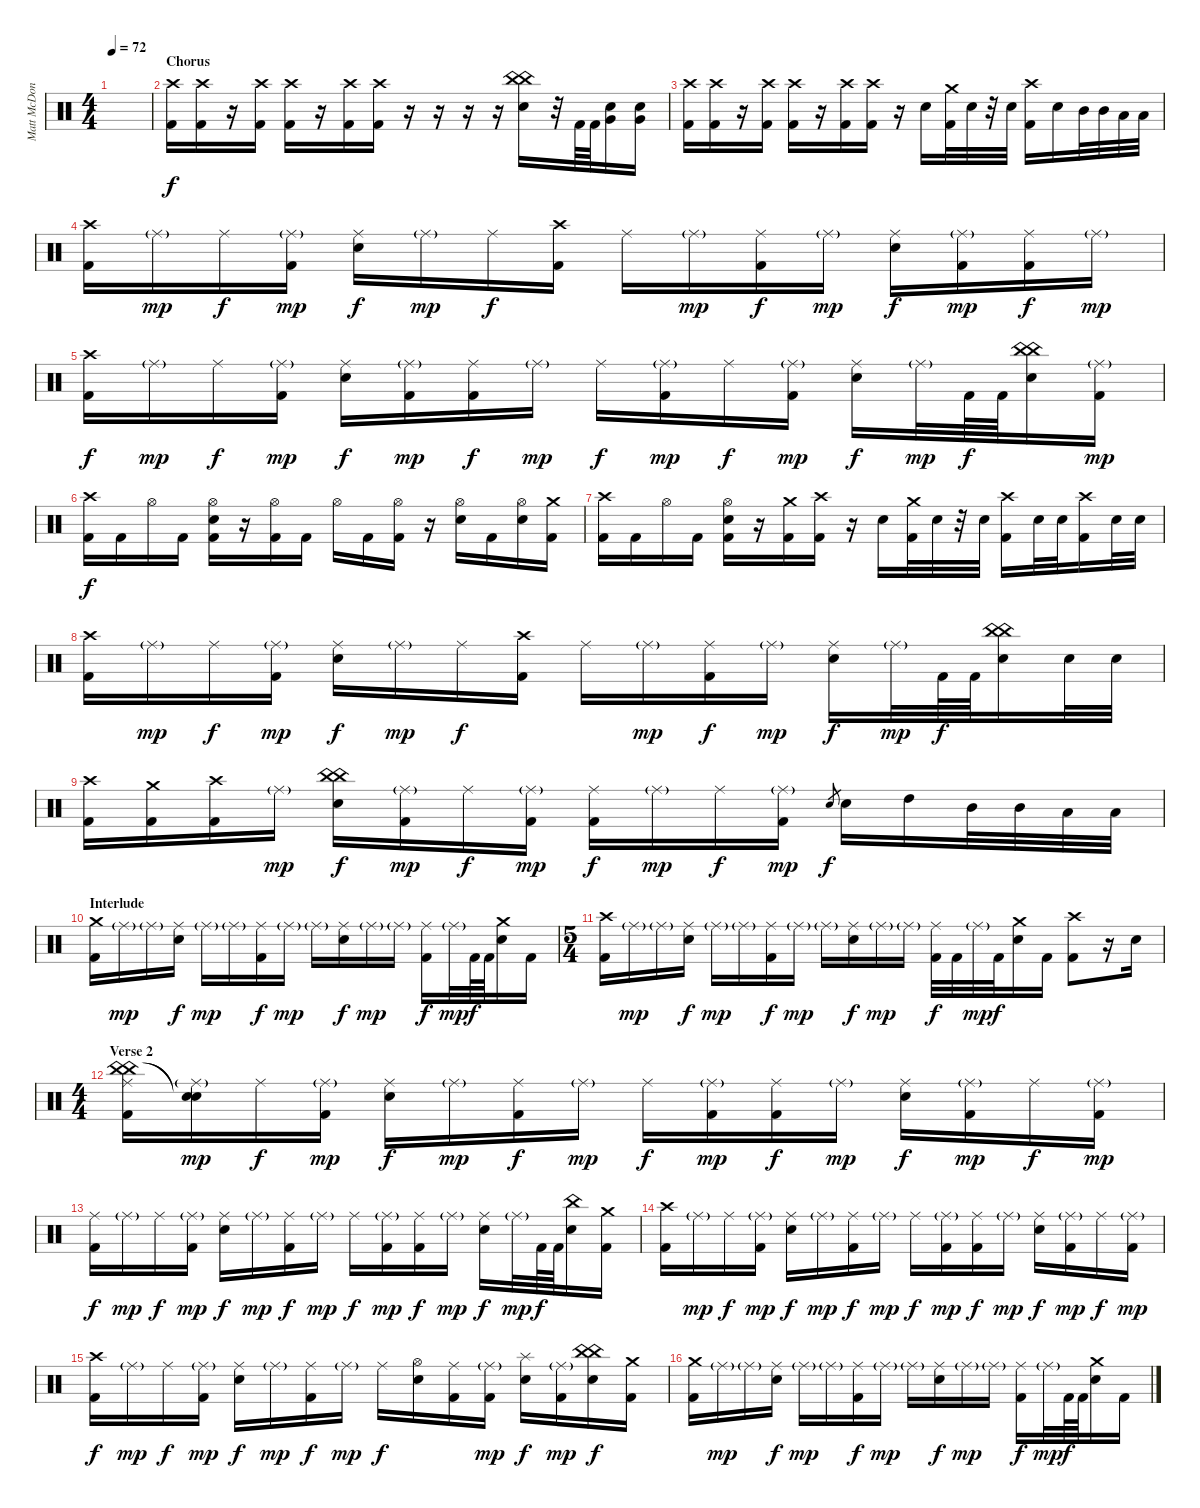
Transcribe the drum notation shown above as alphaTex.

\track ("Matt McDonough \"Spüg\" (Drums)" "Matt McDon") {instrument percussion}
\staff {score}
\articulation defaults
\ts (4 4)
\tempo 72
\clef neutral
\ks c
|
\section ("" "Chorus")
("Crash high (hit)" "Kick (hit) 2").16 ("Crash high (hit)" "Kick (hit) 2").16 r.16 ("Crash high (hit)" "Kick (hit) 2").16 ("Crash high (hit)" "Kick (hit) 2").16 r.16 ("Crash high (hit)" "Kick (hit) 2").16 ("Crash high (hit)" "Kick (hit) 2").16 r.16 r.16 r.16 r.16 ("China (hit)" "China (hit)" "Electric Snare (hit)").16 r.32 "Kick (hit) 2".64 "Kick (hit) 2".64 ("Electric Snare (hit)" "Very Low Tom (hit)").16 ("Electric Snare (hit)" "Very Low Tom (hit)").16 |
("Crash high (hit)" "Kick (hit) 2").16 ("Crash high (hit)" "Kick (hit) 2").16 r.16 ("Crash high (hit)" "Kick (hit) 2").16 ("Crash high (hit)" "Kick (hit) 2").16 r.16 ("Crash high (hit)" "Kick (hit) 2").16 ("Crash high (hit)" "Kick (hit) 2").16 r.16 "Electric Snare (hit)".16 ("Crash medium (hit)" "Kick (hit) 2").32 "Electric Snare (hit)".32 r.32 "Electric Snare (hit)".32 ("Crash high (hit)" "Kick (hit) 2").16 "Electric Snare (hit)".16 "Mid Tom (hit)".32 "Mid Tom (hit)".32 "Low Tom (hit)".32 "Low Tom (hit)".32 |
("Crash high (hit)" "Kick (hit) 2").16 "Ride (middle)"{g}.16{dy mp} "Ride (middle)".16{dy f} ("Ride (middle)"{g} "Kick (hit) 2").16{dy mp} ("Ride (middle)" "Electric Snare (hit)").16{dy f} "Ride (middle)"{g}.16{dy mp} "Ride (middle)".16{dy f} ("Crash high (hit)" "Kick (hit) 2").16 "Ride (middle)".16 "Ride (middle)"{g}.16{dy mp} ("Ride (middle)" "Kick (hit) 2").16{dy f} "Ride (middle)"{g}.16{dy mp} ("Ride (middle)" "Electric Snare (hit)").16{dy f} ("Ride (middle)"{g} "Kick (hit) 2").16{dy mp} ("Ride (middle)" "Kick (hit) 2").16{dy f} "Ride (middle)"{g}.16{dy mp} |
("Crash high (hit)" "Kick (hit) 2").16{dy f} "Ride (middle)"{g}.16{dy mp} "Ride (middle)".16{dy f} ("Ride (middle)"{g} "Kick (hit) 2").16{dy mp} ("Ride (middle)" "Electric Snare (hit)").16{dy f} ("Ride (middle)"{g} "Kick (hit) 2").16{dy mp} ("Ride (middle)" "Kick (hit) 2").16{dy f} "Ride (middle)"{g}.16{dy mp} "Ride (middle)".16{dy f} ("Ride (middle)"{g} "Kick (hit) 2").16{dy mp} "Ride (middle)".16{dy f} ("Ride (middle)"{g} "Kick (hit) 2").16{dy mp} ("Ride (middle)" "Electric Snare (hit)").16{dy f} "Ride (middle)"{g}.32{dy mp} "Kick (hit) 2".64{dy f} "Kick (hit) 2".64 ("China (hit)" "China (hit)" "Electric Snare (hit)").16 ("Ride (middle)"{g} "Kick (hit) 2").16{dy mp} |
("Crash high (hit)" "Kick (hit) 2").16{dy f} "Kick (hit) 2".16 "Hi-Hat (open)".16 "Kick (hit) 2".16 ("Hi-Hat (open)" "Electric Snare (hit)" "Kick (hit) 2").16 r.16 ("Hi-Hat (open)" "Kick (hit) 2").16 "Kick (hit) 2".16 "Hi-Hat (open)".16 "Kick (hit) 2".16 ("Hi-Hat (open)" "Kick (hit) 2").16 r.16 ("Hi-Hat (open)" "Electric Snare (hit)").16 "Kick (hit) 2".16 ("Hi-Hat (open)" "Electric Snare (hit)").16 ("Crash medium (hit)" "Kick (hit) 2").16 |
("Crash high (hit)" "Kick (hit) 2").16 "Kick (hit) 2".16 "Hi-Hat (open)".16 "Kick (hit) 2".16 ("Hi-Hat (open)" "Electric Snare (hit)" "Kick (hit) 2").16 r.16 ("Crash medium (hit)" "Kick (hit) 2").16 ("Crash high (hit)" "Kick (hit) 2").16 r.16 "Electric Snare (hit)".16 ("Crash medium (hit)" "Kick (hit) 2").32 "Electric Snare (hit)".32 r.32 "Electric Snare (hit)".32 ("Crash high (hit)" "Kick (hit) 2").16 "Electric Snare (hit)".32 "Electric Snare (hit)".32 ("Crash high (hit)" "Kick (hit) 2").16 "Electric Snare (hit)".32 "Electric Snare (hit)".32 |
("Crash high (hit)" "Kick (hit) 2").16 "Ride (middle)"{g}.16{dy mp} "Ride (middle)".16{dy f} ("Ride (middle)"{g} "Kick (hit) 2").16{dy mp} ("Ride (middle)" "Electric Snare (hit)").16{dy f} "Ride (middle)"{g}.16{dy mp} "Ride (middle)".16{dy f} ("Crash high (hit)" "Kick (hit) 2").16 "Ride (middle)".16 "Ride (middle)"{g}.16{dy mp} ("Ride (middle)" "Kick (hit) 2").16{dy f} "Ride (middle)"{g}.16{dy mp} ("Ride (middle)" "Electric Snare (hit)").16{dy f} "Ride (middle)"{g}.32{dy mp} "Kick (hit) 2".64{dy f} "Kick (hit) 2".64 ("China (hit)" "China (hit)" "Electric Snare (hit)").16 "Electric Snare (hit)".32 "Electric Snare (hit)".32 |
("Crash high (hit)" "Kick (hit) 2").16 ("Crash medium (hit)" "Kick (hit) 2").16 ("Crash high (hit)" "Kick (hit) 2").16 "Ride (middle)"{g}.16{dy mp} ("China (hit)" "China (hit)" "Electric Snare (hit)").16{dy f} ("Ride (middle)"{g} "Kick (hit) 2").16{dy mp} "Ride (middle)".16{dy f} ("Ride (middle)"{g} "Kick (hit) 2").16{dy mp} ("Ride (middle)" "Kick (hit) 2").16{dy f} "Ride (middle)"{g}.16{dy mp} "Ride (middle)".16{dy f} ("Ride (middle)"{g} "Kick (hit) 2").16{dy mp} "Electric Snare (hit)".8{gr dy f} "Electric Snare (hit)".16 "High Tom (hit)".16 "Mid Tom (hit)".32 "Mid Tom (hit)".32 "Low Tom (hit)".32 "Low Tom (hit)".32 |
\section ("" "Interlude")
("Crash medium (hit)" "Kick (hit) 2").16 "Ride (middle)"{g}.16{dy mp} "Ride (middle)"{g}.16 ("Ride (middle)" "Electric Snare (hit)").16{dy f} "Ride (middle)"{g}.16{dy mp} "Ride (middle)"{g}.16 ("Ride (middle)" "Kick (hit) 2").16{dy f} "Ride (middle)"{g}.16{dy mp} "Ride (middle)"{g}.16 ("Ride (middle)" "Electric Snare (hit)").16{dy f} "Ride (middle)"{g}.16{dy mp} "Ride (middle)"{g}.16 ("Ride (middle)" "Kick (hit) 2").16{dy f} "Ride (middle)"{g}.32{dy mp} "Kick (hit) 2".64{dy f} "Kick (hit) 2".64 ("Crash medium (hit)" "Electric Snare (hit)").16 "Kick (hit) 2".16 |
\ts (5 4)
("Crash high (hit)" "Kick (hit) 2").16 "Ride (middle)"{g}.16{dy mp} "Ride (middle)"{g}.16 ("Ride (middle)" "Electric Snare (hit)").16{dy f} "Ride (middle)"{g}.16{dy mp} "Ride (middle)"{g}.16 ("Ride (middle)" "Kick (hit) 2").16{dy f} "Ride (middle)"{g}.16{dy mp} "Ride (middle)"{g}.16 ("Ride (middle)" "Electric Snare (hit)").16{dy f} "Ride (middle)"{g}.16{dy mp} "Ride (middle)"{g}.16 ("Ride (middle)" "Kick (hit) 2").32{dy f} "Kick (hit) 2".32 "Ride (middle)"{g}.32{dy mp} "Kick (hit) 2".32{dy f} ("Crash medium (hit)" "Electric Snare (hit)").16 "Kick (hit) 2".16 ("Crash high (hit)" "Kick (hit) 2").8 r.16 "Electric Snare (hit)".16 |
\ts (4 4)
\section ("" "Verse 2")
("Ride (middle)" "China (hit)" "China (hit)" "Kick (hit) 2").16 ("Ride (middle)"{g} "Snare (hit)"{t} "Snare (hit)"{t}).16{dy mp} "Ride (middle)".16{dy f} ("Ride (middle)"{g} "Kick (hit) 2").16{dy mp} ("Ride (middle)" "Electric Snare (hit)").16{dy f} "Ride (middle)"{g}.16{dy mp} ("Ride (middle)" "Kick (hit) 2").16{dy f} "Ride (middle)"{g}.16{dy mp} "Ride (middle)".16{dy f} ("Ride (middle)"{g} "Kick (hit) 2").16{dy mp} ("Ride (middle)" "Kick (hit) 2").16{dy f} "Ride (middle)"{g}.16{dy mp} ("Ride (middle)" "Electric Snare (hit)").16{dy f} ("Ride (middle)"{g} "Kick (hit) 2").16{dy mp} "Ride (middle)".16{dy f} ("Ride (middle)"{g} "Kick (hit) 2").16{dy mp} |
("Ride (middle)" "Kick (hit) 2").16{dy f} "Ride (middle)"{g}.16{dy mp} "Ride (middle)".16{dy f} ("Ride (middle)"{g} "Kick (hit) 2").16{dy mp} ("Ride (middle)" "Electric Snare (hit)").16{dy f} "Ride (middle)"{g}.16{dy mp} ("Ride (middle)" "Kick (hit) 2").16{dy f} "Ride (middle)"{g}.16{dy mp} "Ride (middle)".16{dy f} ("Ride (middle)"{g} "Kick (hit) 2").16{dy mp} ("Ride (middle)" "Kick (hit) 2").16{dy f} "Ride (middle)"{g}.16{dy mp} ("Ride (middle)" "Electric Snare (hit)").16{dy f} "Ride (middle)"{g}.32{dy mp} "Kick (hit) 2".64{dy f} "Kick (hit) 2".64 ("China (hit)" "Electric Snare (hit)").16 ("Crash medium (hit)" "Kick (hit) 2").16 |
("Crash high (hit)" "Kick (hit) 2").16 "Ride (middle)"{g}.16{dy mp} "Ride (middle)".16{dy f} ("Ride (middle)"{g} "Kick (hit) 2").16{dy mp} ("Ride (middle)" "Electric Snare (hit)").16{dy f} "Ride (middle)"{g}.16{dy mp} ("Ride (middle)" "Kick (hit) 2").16{dy f} "Ride (middle)"{g}.16{dy mp} "Ride (middle)".16{dy f} ("Ride (middle)"{g} "Kick (hit) 2").16{dy mp} ("Ride (middle)" "Kick (hit) 2").16{dy f} "Ride (middle)"{g}.16{dy mp} ("Ride (middle)" "Electric Snare (hit)").16{dy f} ("Ride (middle)"{g} "Kick (hit) 2").16{dy mp} "Ride (middle)".16{dy f} ("Ride (middle)"{g} "Kick (hit) 2").16{dy mp} |
("Crash high (hit)" "Kick (hit) 2").16{dy f} "Ride (middle)"{g}.16{dy mp} "Ride (middle)".16{dy f} ("Ride (middle)"{g} "Kick (hit) 2").16{dy mp} ("Ride (middle)" "Electric Snare (hit)").16{dy f} "Ride (middle)"{g}.16{dy mp} ("Ride (middle)" "Kick (hit) 2").16{dy f} "Ride (middle)"{g}.16{dy mp} "Ride (middle)".16{dy f} ("Hi-Hat (open)" "Electric Snare (hit)").16 ("Ride (middle)" "Kick (hit) 2").16 ("Ride (middle)"{g} "Kick (hit) 2").16{dy mp} ("Splash (hit)" "Electric Snare (hit)").16{dy f} ("Ride (middle)"{g} "Kick (hit) 2").16{dy mp} ("China (hit)" "China (hit)" "Electric Snare (hit)").16{dy f} ("Crash medium (hit)" "Kick (hit) 2").16 |
("Crash medium (hit)" "Kick (hit) 2").16 "Ride (middle)"{g}.16{dy mp} "Ride (middle)"{g}.16 ("Ride (middle)" "Electric Snare (hit)").16{dy f} "Ride (middle)"{g}.16{dy mp} "Ride (middle)"{g}.16 ("Ride (middle)" "Kick (hit) 2").16{dy f} "Ride (middle)"{g}.16{dy mp} "Ride (middle)"{g}.16 ("Ride (middle)" "Electric Snare (hit)").16{dy f} "Ride (middle)"{g}.16{dy mp} "Ride (middle)"{g}.16 ("Ride (middle)" "Kick (hit) 2").16{dy f} "Ride (middle)"{g}.32{dy mp} "Kick (hit) 2".64{dy f} "Kick (hit) 2".64 ("Crash medium (hit)" "Electric Snare (hit)").16 "Kick (hit) 2".16
